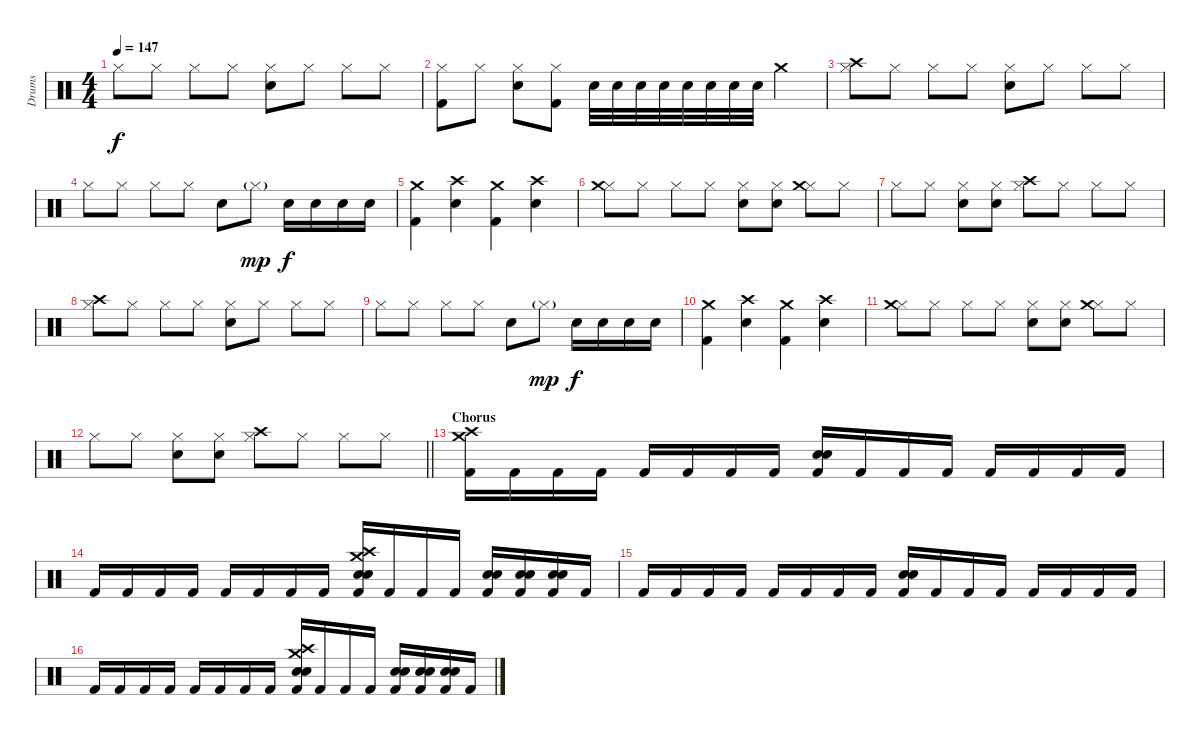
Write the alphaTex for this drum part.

\track ("Drums" "Drums") {instrument percussion}
\staff
\articulation defaults
\ts (4 4)
\tempo 147
\clef neutral
\ks c "Hi-Hat (closed)".8{dy f} "Hi-Hat (closed)".8 "Hi-Hat (closed)".8 "Hi-Hat (closed)".8
("Hi-Hat (closed)" "Snare (hit) 2").8 "Hi-Hat (closed)".8 "Hi-Hat (closed)".8 "Hi-Hat (closed)".8 |
("Hi-Hat (closed)" "Kick (hit) 2").8 "Hi-Hat (closed)".8 ("Hi-Hat (closed)" "Snare (hit) 2").8 ("Hi-Hat (closed)" "Kick (hit) 2").8 "Snare (hit) 2".32 "Snare (hit) 2".32 "Snare (hit) 2".32 "Snare (hit) 2".32 "Snare (hit) 2".32 "Snare (hit) 2".32 "Snare (hit) 2".32 "Snare (hit) 2".32 "Crash medium (hit)".4 |
("Hi-Hat (closed)" "Crash high (hit)").8 "Hi-Hat (closed)".8 "Hi-Hat (closed)".8 "Hi-Hat (closed)".8 ("Hi-Hat (closed)" "Snare (hit) 2").8 "Hi-Hat (closed)".8 "Hi-Hat (closed)".8 "Hi-Hat (closed)".8 |
"Hi-Hat (closed)".8 "Hi-Hat (closed)".8 "Hi-Hat (closed)".8 "Hi-Hat (closed)".8 "Snare (hit) 2".8 "Hi-Hat (closed)"{g}.8{dy mp} "Snare (hit) 2".16{dy f} "Snare (hit) 2".16 "Snare (hit) 2".16 "Snare (hit) 2".16 |
("Crash medium (hit)" "Kick (hit) 2").4 ("Crash high (hit)" "Snare (hit) 2").4 ("Crash medium (hit)" "Kick (hit) 2").4 ("Crash high (hit)" "Snare (hit) 2").4 |
("Hi-Hat (closed)" "Crash medium (hit)").8 "Hi-Hat (closed)".8 "Hi-Hat (closed)".8 "Hi-Hat (closed)".8 ("Hi-Hat (closed)" "Snare (hit) 2").8 ("Hi-Hat (closed)" "Snare (hit) 2").8 ("Hi-Hat (closed)" "Crash medium (hit)").8 "Hi-Hat (closed)".8 |
"Hi-Hat (closed)".8 "Hi-Hat (closed)".8 ("Hi-Hat (closed)" "Snare (hit) 2").8 ("Hi-Hat (closed)" "Snare (hit) 2").8 ("Hi-Hat (closed)" "Crash high (hit)").8 "Hi-Hat (closed)".8 "Hi-Hat (closed)".8 "Hi-Hat (closed)".8 |
("Hi-Hat (closed)" "Crash high (hit)").8 "Hi-Hat (closed)".8 "Hi-Hat (closed)".8 "Hi-Hat (closed)".8 ("Hi-Hat (closed)" "Snare (hit) 2").8 "Hi-Hat (closed)".8 "Hi-Hat (closed)".8 "Hi-Hat (closed)".8 |
"Hi-Hat (closed)".8 "Hi-Hat (closed)".8 "Hi-Hat (closed)".8 "Hi-Hat (closed)".8 "Snare (hit) 2".8 "Hi-Hat (closed)"{g}.8{dy mp} "Snare (hit) 2".16{dy f} "Snare (hit) 2".16 "Snare (hit) 2".16 "Snare (hit) 2".16 |
("Crash medium (hit)" "Kick (hit) 2").4 ("Crash high (hit)" "Snare (hit) 2").4 ("Crash medium (hit)" "Kick (hit) 2").4 ("Crash high (hit)" "Snare (hit) 2").4 |
("Hi-Hat (closed)" "Crash medium (hit)").8 "Hi-Hat (closed)".8 "Hi-Hat (closed)".8 "Hi-Hat (closed)".8 ("Hi-Hat (closed)" "Snare (hit) 2").8 ("Hi-Hat (closed)" "Snare (hit) 2").8 ("Hi-Hat (closed)" "Crash medium (hit)").8 "Hi-Hat (closed)".8 |
\barLineRight lightlight "Hi-Hat (closed)".8 "Hi-Hat (closed)".8
("Hi-Hat (closed)" "Snare (hit) 2").8 ("Hi-Hat (closed)" "Snare (hit) 2").8 ("Hi-Hat (closed)" "Crash high (hit)").8 "Hi-Hat (closed)".8 "Hi-Hat (closed)".8 "Hi-Hat (closed)".8 |
\section ("" "Chorus")
("Crash high (hit)" "Kick (hit) 2" "Crash medium (hit)").16 "Kick (hit) 2".16 "Kick (hit) 2".16 "Kick (hit) 2".16 "Kick (hit) 2".16 "Kick (hit) 2".16 "Kick (hit) 2".16 "Kick (hit) 2".16 ("Kick (hit) 2" "Electric Snare (hit)" "Snare (hit) 2").16 "Kick (hit) 2".16 "Kick (hit) 2".16 "Kick (hit) 2".16 "Kick (hit) 2".16 "Kick (hit) 2".16 "Kick (hit) 2".16 "Kick (hit) 2".16 |
"Kick (hit) 2".16 "Kick (hit) 2".16 "Kick (hit) 2".16 "Kick (hit) 2".16 "Kick (hit) 2".16 "Kick (hit) 2".16 "Kick (hit) 2".16 "Kick (hit) 2".16 ("Crash medium (hit)" "Crash high (hit)" "Kick (hit) 2" "Electric Snare (hit)" "Snare (hit) 2").16 "Kick (hit) 2".16 "Kick (hit) 2".16 "Kick (hit) 2".16 ("Kick (hit) 2" "Electric Snare (hit)" "Snare (hit) 2").16 ("Kick (hit) 2" "Electric Snare (hit)" "Snare (hit) 2").16 ("Kick (hit) 2" "Electric Snare (hit)" "Snare (hit) 2").16 "Kick (hit) 2".16 |
"Kick (hit) 2".16 "Kick (hit) 2".16 "Kick (hit) 2".16 "Kick (hit) 2".16 "Kick (hit) 2".16 "Kick (hit) 2".16 "Kick (hit) 2".16 "Kick (hit) 2".16 ("Kick (hit) 2" "Electric Snare (hit)" "Snare (hit) 2").16 "Kick (hit) 2".16 "Kick (hit) 2".16 "Kick (hit) 2".16 "Kick (hit) 2".16 "Kick (hit) 2".16 "Kick (hit) 2".16 "Kick (hit) 2".16 |
"Kick (hit) 2".16 "Kick (hit) 2".16 "Kick (hit) 2".16 "Kick (hit) 2".16 "Kick (hit) 2".16 "Kick (hit) 2".16 "Kick (hit) 2".16 "Kick (hit) 2".16 ("Crash medium (hit)" "Crash high (hit)" "Kick (hit) 2" "Electric Snare (hit)" "Snare (hit) 2").16 "Kick (hit) 2".16 "Kick (hit) 2".16 "Kick (hit) 2".16 ("Kick (hit) 2" "Electric Snare (hit)" "Snare (hit) 2").16 ("Kick (hit) 2" "Electric Snare (hit)" "Snare (hit) 2").16 ("Kick (hit) 2" "Electric Snare (hit)" "Snare (hit) 2").16 "Kick (hit) 2".16
